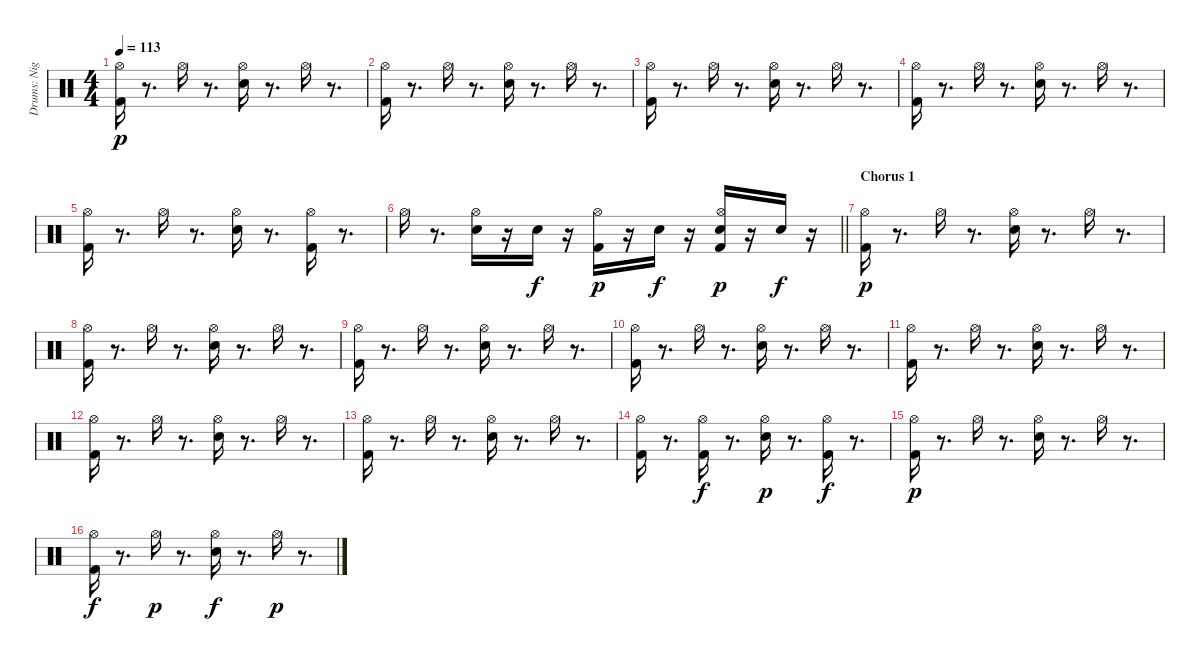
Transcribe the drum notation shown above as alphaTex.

\track ("Drums: Nigel Olsson" "Drums: Nig") {instrument percussion}
\staff {score}
\articulation defaults
\ts (4 4)
\tempo 113
\clef neutral
\ks c
("Kick (hit) 2" "Hi-Hat (open)").16{dy p} r.8{d} "Hi-Hat (open)".16 r.8{d} ("Snare (hit) 2" "Hi-Hat (open)").16 r.8{d} "Hi-Hat (open)".16 r.8{d} |
("Kick (hit) 2" "Hi-Hat (open)").16 r.8{d} "Hi-Hat (open)".16 r.8{d} ("Snare (hit) 2" "Hi-Hat (open)").16 r.8{d} "Hi-Hat (open)".16 r.8{d} |
("Kick (hit) 2" "Hi-Hat (open)").16 r.8{d} "Hi-Hat (open)".16 r.8{d} ("Snare (hit) 2" "Hi-Hat (open)").16 r.8{d} "Hi-Hat (open)".16 r.8{d} |
("Kick (hit) 2" "Hi-Hat (open)").16 r.8{d} "Hi-Hat (open)".16 r.8{d} ("Snare (hit) 2" "Hi-Hat (open)").16 r.8{d} "Hi-Hat (open)".16 r.8{d} |
("Kick (hit) 2" "Hi-Hat (open)").16 r.8{d} "Hi-Hat (open)".16 r.8{d} ("Snare (hit) 2" "Hi-Hat (open)").16 r.8{d} ("Kick (hit) 2" "Hi-Hat (open)").16 r.8{d} |
\barLineRight lightlight "Hi-Hat (open)".16
r.8{d} ("Hi-Hat (open)" "Snare (hit) 2").16 r.16 "Snare (hit) 2".16{dy f} r.16 ("Hi-Hat (open)" "Kick (hit) 2").16{dy p} r.16 "Snare (hit) 2".16{dy f} r.16 ("Kick (hit) 2" "Hi-Hat (open)" "Snare (hit) 2").16{dy p} r.16 "Snare (hit) 2".16{dy f} r.16 |
\section ("" "Chorus 1")
("Kick (hit) 2" "Hi-Hat (open)").16{dy p} r.8{d} "Hi-Hat (open)".16 r.8{d} ("Snare (hit) 2" "Hi-Hat (open)").16 r.8{d} "Hi-Hat (open)".16 r.8{d} |
("Kick (hit) 2" "Hi-Hat (open)").16 r.8{d} "Hi-Hat (open)".16 r.8{d} ("Snare (hit) 2" "Hi-Hat (open)").16 r.8{d} "Hi-Hat (open)".16 r.8{d} |
("Kick (hit) 2" "Hi-Hat (open)").16 r.8{d} "Hi-Hat (open)".16 r.8{d} ("Snare (hit) 2" "Hi-Hat (open)").16 r.8{d} "Hi-Hat (open)".16 r.8{d} |
("Hi-Hat (open)" "Kick (hit) 2").16 r.8{d} "Hi-Hat (open)".16 r.8{d} ("Hi-Hat (open)" "Snare (hit) 2").16 r.8{d} "Hi-Hat (open)".16 r.8{d} |
("Hi-Hat (open)" "Kick (hit) 2").16 r.8{d} "Hi-Hat (open)".16 r.8{d} ("Hi-Hat (open)" "Snare (hit) 2").16 r.8{d} "Hi-Hat (open)".16 r.8{d} |
("Hi-Hat (open)" "Kick (hit) 2").16 r.8{d} "Hi-Hat (open)".16 r.8{d} ("Hi-Hat (open)" "Snare (hit) 2").16 r.8{d} "Hi-Hat (open)".16 r.8{d} |
("Kick (hit) 2" "Hi-Hat (open)").16 r.8{d} "Hi-Hat (open)".16 r.8{d} ("Snare (hit) 2" "Hi-Hat (open)").16 r.8{d} "Hi-Hat (open)".16 r.8{d} |
("Kick (hit) 2" "Hi-Hat (open)").16 r.8{d} ("Kick (hit) 2" "Hi-Hat (open)").16{dy f} r.8{d} ("Snare (hit) 2" "Hi-Hat (open)").16{dy p} r.8{d} ("Kick (hit) 2" "Hi-Hat (open)").16{dy f} r.8{d} |
("Hi-Hat (open)" "Kick (hit) 2").16{dy p} r.8{d} "Hi-Hat (open)".16 r.8{d} ("Hi-Hat (open)" "Snare (hit) 2").16 r.8{d} "Hi-Hat (open)".16 r.8{d} |
("Kick (hit) 2" "Hi-Hat (open)").16{dy f} r.8{d} "Hi-Hat (open)".16{dy p} r.8{d} ("Snare (hit) 2" "Hi-Hat (open)").16{dy f} r.8{d} "Hi-Hat (open)".16{dy p} r.8{d}
